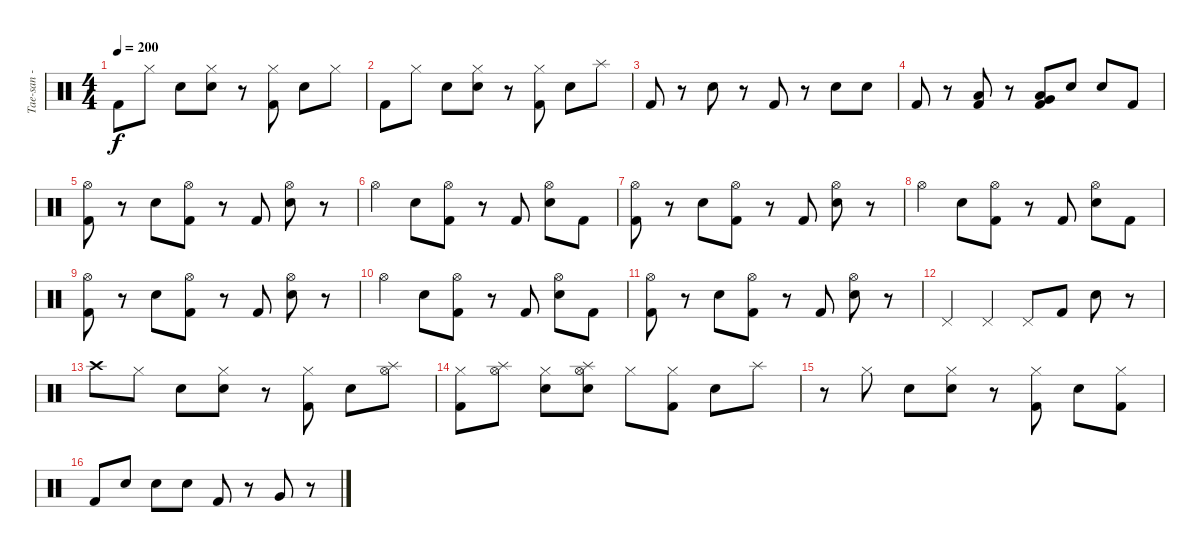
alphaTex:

\track ("Tae-san - Drums" "Tae-san - ") {instrument percussion}
\staff {score}
\articulation defaults
\ts (4 4)
\tempo 200
\clef neutral
\ks c "Kick (hit) 2".8{dy f} "Hi-Hat (closed)".8 "Electric Snare (hit)".8
("Electric Snare (hit)" "Hi-Hat (closed)").8 r.8 ("Kick (hit) 2" "Hi-Hat (closed)").8 "Electric Snare (hit)".8 "Hi-Hat (closed)".8 |
"Kick (hit) 2".8 "Hi-Hat (closed)".8 "Electric Snare (hit)".8 ("Electric Snare (hit)" "Hi-Hat (closed)").8 r.8 ("Kick (hit) 2" "Hi-Hat (closed)").8 "Electric Snare (hit)".8 "Splash (hit)".8 |
"Kick (hit) 2".8 r.8 "Electric Snare (hit)".8 r.8 "Kick (hit) 2".8 r.8 "Electric Snare (hit)".8 "Electric Snare (hit)".8 |
"Kick (hit) 2".8 r.8 ("Kick (hit) 2" "Low Tom (hit)").8 r.8 ("Kick (hit) 2" "Low Floor Tom (hit)" "Very Low Tom (hit)").8 "Electric Snare (hit)".8 "Electric Snare (hit)".8 "Kick (hit) 2".8 |
("Kick (hit) 2" "Hi-Hat (open)").8 r.8 "Electric Snare (hit)".8 ("Kick (hit) 2" "Hi-Hat (open)").8 r.8 "Kick (hit) 2".8 ("Electric Snare (hit)" "Hi-Hat (open)").8 r.8 |
"Hi-Hat (open)".4 "Electric Snare (hit)".8 ("Kick (hit) 2" "Hi-Hat (open)").8 r.8 "Kick (hit) 2".8 ("Electric Snare (hit)" "Hi-Hat (open)").8 "Kick (hit) 2".8 |
("Kick (hit) 2" "Hi-Hat (open)").8 r.8 "Electric Snare (hit)".8 ("Kick (hit) 2" "Hi-Hat (open)").8 r.8 "Kick (hit) 2".8 ("Electric Snare (hit)" "Hi-Hat (open)").8 r.8 |
"Hi-Hat (open)".4 "Electric Snare (hit)".8 ("Kick (hit) 2" "Hi-Hat (open)").8 r.8 "Kick (hit) 2".8 ("Electric Snare (hit)" "Hi-Hat (open)").8 "Kick (hit) 2".8 |
("Kick (hit) 2" "Hi-Hat (open)").8 r.8 "Electric Snare (hit)".8 ("Kick (hit) 2" "Hi-Hat (open)").8 r.8 "Kick (hit) 2".8 ("Electric Snare (hit)" "Hi-Hat (open)").8 r.8 |
"Hi-Hat (open)".4 "Electric Snare (hit)".8 ("Kick (hit) 2" "Hi-Hat (open)").8 r.8 "Kick (hit) 2".8 ("Electric Snare (hit)" "Hi-Hat (open)").8 "Kick (hit) 2".8 |
("Kick (hit) 2" "Hi-Hat (open)").8 r.8 "Electric Snare (hit)".8 ("Kick (hit) 2" "Hi-Hat (open)").8 r.8 "Kick (hit) 2".8 ("Electric Snare (hit)" "Hi-Hat (open)").8 r.8 |
"Pedal Hi-Hat (hit)".4 "Pedal Hi-Hat (hit)".4 "Pedal Hi-Hat (hit)".8 "Kick (hit) 2".8 "Electric Snare (hit)".8 r.8 |
"Crash high (hit)".8 "Hi-Hat (closed)".8 "Electric Snare (hit)".8 ("Electric Snare (hit)" "Hi-Hat (closed)").8 r.8 ("Kick (hit) 2" "Hi-Hat (closed)").8 "Electric Snare (hit)".8 ("Splash (hit)" "Hi-Hat (open)").8 |
("Kick (hit) 2" "Hi-Hat (closed)").8 ("Splash (hit)" "Hi-Hat (open)").8 ("Electric Snare (hit)" "Hi-Hat (closed)").8 ("Electric Snare (hit)" "Splash (hit)" "Hi-Hat (open)").8 "Hi-Hat (closed)".8 ("Kick (hit) 2" "Hi-Hat (closed)").8 "Electric Snare (hit)".8 "Splash (hit)".8 |
r.8 "Hi-Hat (closed)".8 "Electric Snare (hit)".8 ("Electric Snare (hit)" "Hi-Hat (closed)").8 r.8 ("Kick (hit) 2" "Hi-Hat (closed)").8 "Electric Snare (hit)".8 ("Kick (hit) 2" "Hi-Hat (closed)").8 |
"Kick (hit) 2".8 "Electric Snare (hit)".8 "Electric Snare (hit)".8 "Electric Snare (hit)".8 "Kick (hit) 2".8 r.8 "Very Low Tom (hit)".8 r.8
